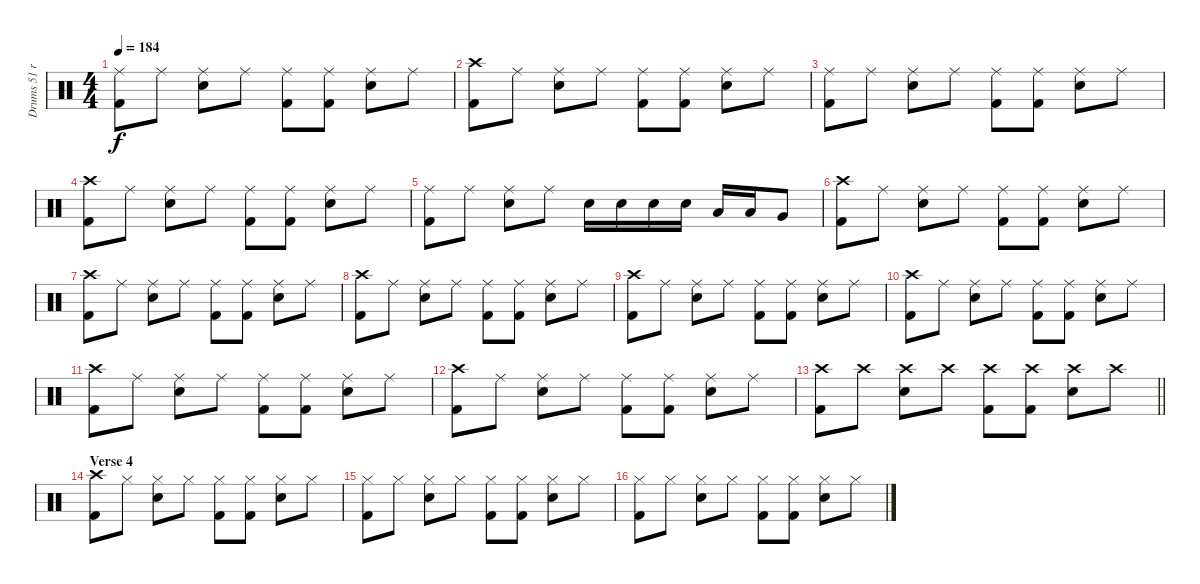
\track ("Drums 51 ride" "Drums 51 r") {mute instrument percussion}
\staff {score}
\articulation defaults
\ts (4 4)
\tempo 184
\clef neutral
\ks c
("Ride (middle)" "Kick (hit) 2").8{dy f} "Ride (middle)".8 ("Ride (middle)" "Snare (hit) 2").8 "Ride (middle)".8 ("Ride (middle)" "Kick (hit) 2").8 ("Ride (middle)" "Kick (hit) 2").8 ("Ride (middle)" "Snare (hit) 2").8 "Ride (middle)".8 |
("Crash high (hit)" "Kick (hit) 2").8 "Ride (middle)".8 ("Ride (middle)" "Snare (hit) 2").8 "Ride (middle)".8 ("Ride (middle)" "Kick (hit) 2").8 ("Ride (middle)" "Kick (hit) 2").8 ("Ride (middle)" "Snare (hit) 2").8 "Ride (middle)".8 |
("Ride (middle)" "Kick (hit) 2").8 "Ride (middle)".8 ("Ride (middle)" "Snare (hit) 2").8 "Ride (middle)".8 ("Ride (middle)" "Kick (hit) 2").8 ("Ride (middle)" "Kick (hit) 2").8 ("Ride (middle)" "Snare (hit) 2").8 "Ride (middle)".8 |
("Crash high (hit)" "Kick (hit) 2").8 "Ride (middle)".8 ("Ride (middle)" "Snare (hit) 2").8 "Ride (middle)".8 ("Ride (middle)" "Kick (hit) 2").8 ("Ride (middle)" "Kick (hit) 2").8 ("Ride (middle)" "Snare (hit) 2").8 "Ride (middle)".8 |
("Ride (middle)" "Kick (hit) 2").8 "Ride (middle)".8 ("Ride (middle)" "Snare (hit) 2").8 "Ride (middle)".8 "Snare (hit) 2".16 "Snare (hit) 2".16 "Snare (hit) 2".16 "Snare (hit) 2".16 "Low Tom (hit)".16 "Low Tom (hit)".16 "Very Low Tom (hit)".8 |
("Crash high (hit)" "Kick (hit) 2").8 "Ride (middle)".8 ("Ride (middle)" "Snare (hit) 2").8 "Ride (middle)".8 ("Ride (middle)" "Kick (hit) 2").8 ("Ride (middle)" "Kick (hit) 2").8 ("Ride (middle)" "Snare (hit) 2").8 "Ride (middle)".8 |
("Crash high (hit)" "Kick (hit) 2").8 "Ride (middle)".8 ("Ride (middle)" "Snare (hit) 2").8 "Ride (middle)".8 ("Ride (middle)" "Kick (hit) 2").8 ("Ride (middle)" "Kick (hit) 2").8 ("Ride (middle)" "Snare (hit) 2").8 "Ride (middle)".8 |
("Crash high (hit)" "Kick (hit) 2").8 "Ride (middle)".8 ("Ride (middle)" "Snare (hit) 2").8 "Ride (middle)".8 ("Ride (middle)" "Kick (hit) 2").8 ("Ride (middle)" "Kick (hit) 2").8 ("Ride (middle)" "Snare (hit) 2").8 "Ride (middle)".8 |
("Crash high (hit)" "Kick (hit) 2").8 "Ride (middle)".8 ("Ride (middle)" "Snare (hit) 2").8 "Ride (middle)".8 ("Ride (middle)" "Kick (hit) 2").8 ("Ride (middle)" "Kick (hit) 2").8 ("Ride (middle)" "Snare (hit) 2").8 "Ride (middle)".8 |
("Crash high (hit)" "Kick (hit) 2").8 "Ride (middle)".8 ("Ride (middle)" "Snare (hit) 2").8 "Ride (middle)".8 ("Ride (middle)" "Kick (hit) 2").8 ("Ride (middle)" "Kick (hit) 2").8 ("Ride (middle)" "Snare (hit) 2").8 "Ride (middle)".8 |
("Crash high (hit)" "Kick (hit) 2").8 "Ride (middle)".8 ("Ride (middle)" "Snare (hit) 2").8 "Ride (middle)".8 ("Ride (middle)" "Kick (hit) 2").8 ("Ride (middle)" "Kick (hit) 2").8 ("Ride (middle)" "Snare (hit) 2").8 "Ride (middle)".8 |
("Crash high (hit)" "Kick (hit) 2").8 "Ride (middle)".8 ("Ride (middle)" "Snare (hit) 2").8 "Ride (middle)".8 ("Ride (middle)" "Kick (hit) 2").8 ("Ride (middle)" "Kick (hit) 2").8 ("Ride (middle)" "Snare (hit) 2").8 "Ride (middle)".8 |
\barLineRight lightlight
("Crash high (hit)" "Kick (hit) 2").8 "Crash high (hit)".8 ("Crash high (hit)" "Snare (hit) 2").8 "Crash high (hit)".8 ("Crash high (hit)" "Kick (hit) 2").8 ("Crash high (hit)" "Kick (hit) 2").8 ("Crash high (hit)" "Snare (hit) 2").8 "Crash high (hit)".8 |
\section ("" "Verse 4")
("Crash high (hit)" "Kick (hit) 2").8 "Hi-Hat (closed)".8 ("Hi-Hat (closed)" "Snare (hit) 2").8 "Hi-Hat (closed)".8 ("Hi-Hat (closed)" "Kick (hit) 2").8 ("Hi-Hat (closed)" "Kick (hit) 2").8 ("Hi-Hat (closed)" "Snare (hit) 2").8 "Hi-Hat (closed)".8 |
("Hi-Hat (closed)" "Kick (hit) 2").8 "Hi-Hat (closed)".8 ("Hi-Hat (closed)" "Snare (hit) 2").8 "Hi-Hat (closed)".8 ("Hi-Hat (closed)" "Kick (hit) 2").8 ("Hi-Hat (closed)" "Kick (hit) 2").8 ("Hi-Hat (closed)" "Snare (hit) 2").8 "Hi-Hat (closed)".8 |
("Hi-Hat (closed)" "Kick (hit) 2").8 "Hi-Hat (closed)".8 ("Hi-Hat (closed)" "Snare (hit) 2").8 "Hi-Hat (closed)".8 ("Hi-Hat (closed)" "Kick (hit) 2").8 ("Hi-Hat (closed)" "Kick (hit) 2").8 ("Hi-Hat (closed)" "Snare (hit) 2").8 "Hi-Hat (closed)".8
